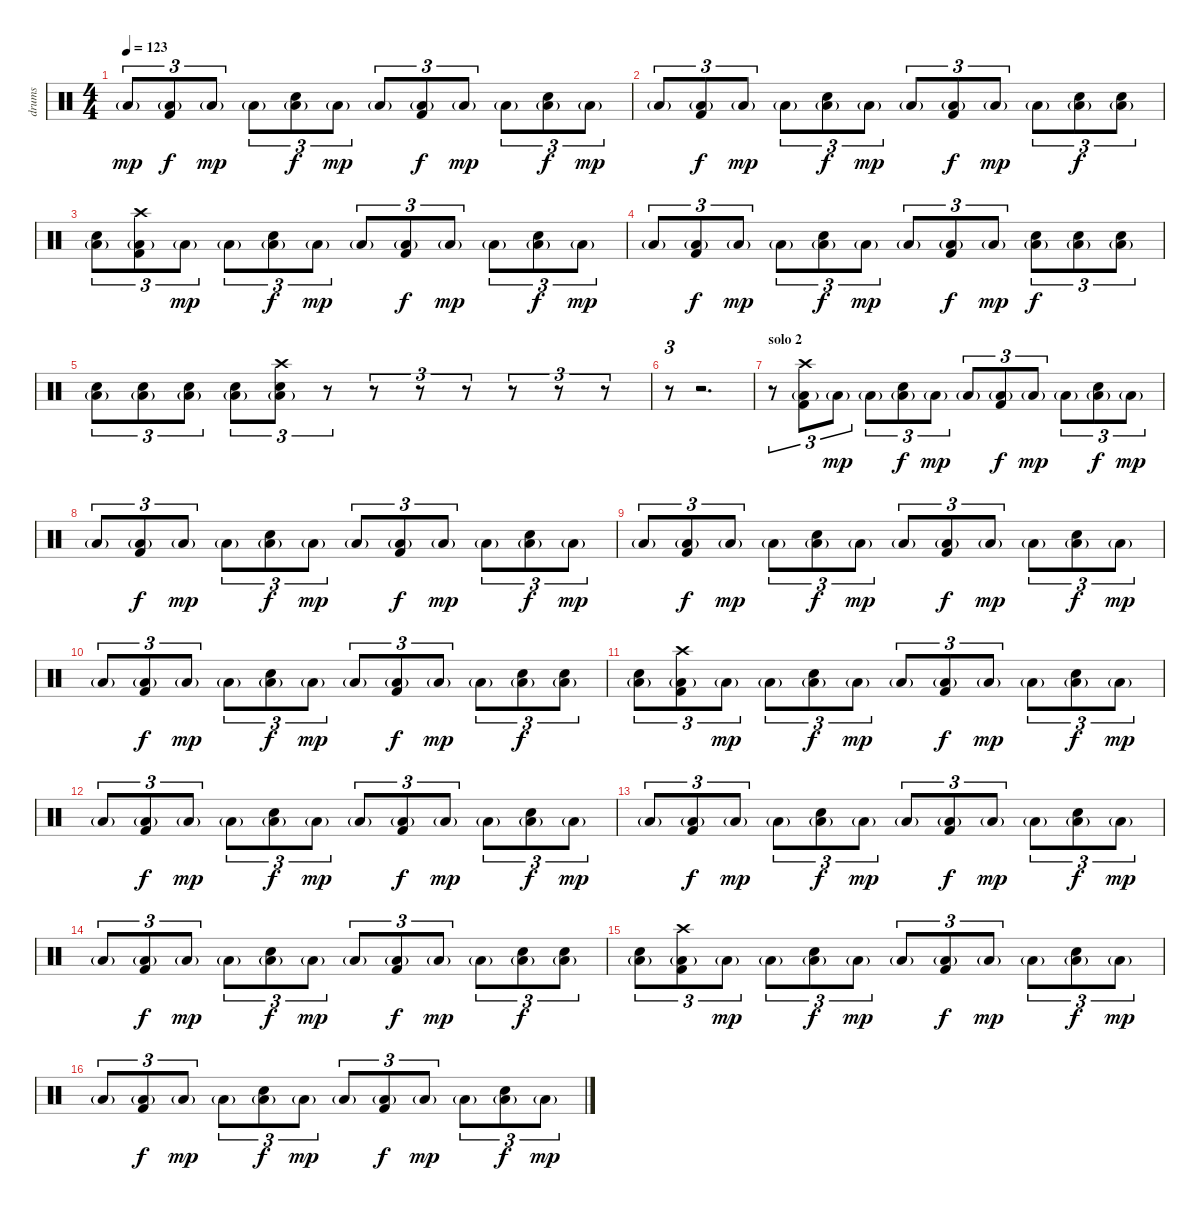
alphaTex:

\track ("drums" "drums") {instrument percussion}
\staff {score}
\articulation defaults
\ts (4 4)
\tempo 123
\clef neutral
\ks c "Low Floor Tom (hit)"{g}.8{tu (3 2) txt "" dy mp}
("Low Floor Tom (hit)"{g} "Kick (hit) 2").8{tu (3 2) txt "" dy f} "Low Floor Tom (hit)"{g}.8{tu (3 2) txt "" dy mp} "Low Floor Tom (hit)"{g}.8{tu (3 2) txt ""} ("Low Floor Tom (hit)"{g} "Electric Snare (hit)").8{tu (3 2) txt "" dy f} "Low Floor Tom (hit)"{g}.8{tu (3 2) txt "" dy mp} "Low Floor Tom (hit)"{g}.8{tu (3 2) txt ""} ("Low Floor Tom (hit)"{g} "Kick (hit) 2").8{tu (3 2) txt "" dy f} "Low Floor Tom (hit)"{g}.8{tu (3 2) txt "" dy mp} "Low Floor Tom (hit)"{g}.8{tu (3 2) txt ""} ("Low Floor Tom (hit)"{g} "Electric Snare (hit)").8{tu (3 2) txt "" dy f} "Low Floor Tom (hit)"{g}.8{tu (3 2) txt "" dy mp} |
"Low Floor Tom (hit)"{g}.8{tu (3 2) txt ""} ("Low Floor Tom (hit)"{g} "Kick (hit) 2").8{tu (3 2) txt "" dy f} "Low Floor Tom (hit)"{g}.8{tu (3 2) txt "" dy mp} "Low Floor Tom (hit)"{g}.8{tu (3 2) txt ""} ("Low Floor Tom (hit)"{g} "Electric Snare (hit)").8{tu (3 2) txt "" dy f} "Low Floor Tom (hit)"{g}.8{tu (3 2) txt "" dy mp} "Low Floor Tom (hit)"{g}.8{tu (3 2) txt ""} ("Low Floor Tom (hit)"{g} "Kick (hit) 2").8{tu (3 2) txt "" dy f} "Low Floor Tom (hit)"{g}.8{tu (3 2) txt "" dy mp} "Low Floor Tom (hit)"{g}.8{tu (3 2) txt ""} ("Low Floor Tom (hit)"{g} "Electric Snare (hit)").8{tu (3 2) txt "" dy f} ("Low Floor Tom (hit)"{g} "Electric Snare (hit)").8{tu (3 2) txt ""} |
("Low Floor Tom (hit)"{g} "Electric Snare (hit)").8{tu (3 2) txt ""} ("Low Floor Tom (hit)"{g} "Kick (hit) 2" "Crash high (hit)").8{tu (3 2) txt ""} "Low Floor Tom (hit)"{g}.8{tu (3 2) txt "" dy mp} "Low Floor Tom (hit)"{g}.8{tu (3 2) txt ""} ("Low Floor Tom (hit)"{g} "Electric Snare (hit)").8{tu (3 2) txt "" dy f} "Low Floor Tom (hit)"{g}.8{tu (3 2) txt "" dy mp} "Low Floor Tom (hit)"{g}.8{tu (3 2) txt ""} ("Low Floor Tom (hit)"{g} "Kick (hit) 2").8{tu (3 2) txt "" dy f} "Low Floor Tom (hit)"{g}.8{tu (3 2) txt "" dy mp} "Low Floor Tom (hit)"{g}.8{tu (3 2) txt ""} ("Low Floor Tom (hit)"{g} "Electric Snare (hit)").8{tu (3 2) txt "" dy f} "Low Floor Tom (hit)"{g}.8{tu (3 2) txt "" dy mp} |
"Low Floor Tom (hit)"{g}.8{tu (3 2) txt ""} ("Low Floor Tom (hit)"{g} "Kick (hit) 2").8{tu (3 2) txt "" dy f} "Low Floor Tom (hit)"{g}.8{tu (3 2) txt "" dy mp} "Low Floor Tom (hit)"{g}.8{tu (3 2) txt ""} ("Low Floor Tom (hit)"{g} "Electric Snare (hit)").8{tu (3 2) txt "" dy f} "Low Floor Tom (hit)"{g}.8{tu (3 2) txt "" dy mp} "Low Floor Tom (hit)"{g}.8{tu (3 2) txt ""} ("Low Floor Tom (hit)"{g} "Kick (hit) 2").8{tu (3 2) txt "" dy f} "Low Floor Tom (hit)"{g}.8{tu (3 2) txt "" dy mp} ("Low Floor Tom (hit)"{g} "Electric Snare (hit)").8{tu (3 2) txt "" dy f} ("Low Floor Tom (hit)"{g} "Electric Snare (hit)").8{tu (3 2) txt ""} ("Low Floor Tom (hit)"{g} "Electric Snare (hit)").8{tu (3 2) txt ""} |
("Low Floor Tom (hit)"{g} "Electric Snare (hit)").8{tu (3 2) txt ""} ("Low Floor Tom (hit)"{g} "Electric Snare (hit)").8{tu (3 2) txt ""} ("Low Floor Tom (hit)"{g} "Electric Snare (hit)").8{tu (3 2) txt ""} ("Low Floor Tom (hit)"{g} "Electric Snare (hit)").8{tu (3 2) txt ""} ("Low Floor Tom (hit)"{g} "Electric Snare (hit)" "Crash high (hit)").8{tu (3 2) txt ""} r.8{tu (3 2) txt ""} r.8{tu (3 2) txt ""} r.8{tu (3 2) txt ""} r.8{tu (3 2) txt ""} r.8{tu (3 2) txt ""} r.8{tu (3 2) txt ""} r.8{tu (3 2) txt ""} |
r.8{tu (3 2) txt ""} r.2{d txt ""} |
\section ("" "solo 2")
r.8{tu (3 2) txt ""} ("Low Floor Tom (hit)"{g} "Kick (hit) 2" "Crash high (hit)").8{tu (3 2) txt ""} "Low Floor Tom (hit)"{g}.8{tu (3 2) txt "" dy mp} "Low Floor Tom (hit)"{g}.8{tu (3 2) txt ""} ("Low Floor Tom (hit)"{g} "Electric Snare (hit)").8{tu (3 2) txt "" dy f} "Low Floor Tom (hit)"{g}.8{tu (3 2) txt "" dy mp} "Low Floor Tom (hit)"{g}.8{tu (3 2) txt ""} ("Low Floor Tom (hit)"{g} "Kick (hit) 2").8{tu (3 2) txt "" dy f} "Low Floor Tom (hit)"{g}.8{tu (3 2) txt "" dy mp} "Low Floor Tom (hit)"{g}.8{tu (3 2) txt ""} ("Low Floor Tom (hit)"{g} "Electric Snare (hit)").8{tu (3 2) txt "" dy f} "Low Floor Tom (hit)"{g}.8{tu (3 2) txt "" dy mp} |
"Low Floor Tom (hit)"{g}.8{tu (3 2) txt ""} ("Low Floor Tom (hit)"{g} "Kick (hit) 2").8{tu (3 2) txt "" dy f} "Low Floor Tom (hit)"{g}.8{tu (3 2) txt "" dy mp} "Low Floor Tom (hit)"{g}.8{tu (3 2) txt ""} ("Low Floor Tom (hit)"{g} "Electric Snare (hit)").8{tu (3 2) txt "" dy f} "Low Floor Tom (hit)"{g}.8{tu (3 2) txt "" dy mp} "Low Floor Tom (hit)"{g}.8{tu (3 2) txt ""} ("Low Floor Tom (hit)"{g} "Kick (hit) 2").8{tu (3 2) txt "" dy f} "Low Floor Tom (hit)"{g}.8{tu (3 2) txt "" dy mp} "Low Floor Tom (hit)"{g}.8{tu (3 2) txt ""} ("Low Floor Tom (hit)"{g} "Electric Snare (hit)").8{tu (3 2) txt "" dy f} "Low Floor Tom (hit)"{g}.8{tu (3 2) txt "" dy mp} |
"Low Floor Tom (hit)"{g}.8{tu (3 2) txt ""} ("Low Floor Tom (hit)"{g} "Kick (hit) 2").8{tu (3 2) txt "" dy f} "Low Floor Tom (hit)"{g}.8{tu (3 2) txt "" dy mp} "Low Floor Tom (hit)"{g}.8{tu (3 2) txt ""} ("Low Floor Tom (hit)"{g} "Electric Snare (hit)").8{tu (3 2) txt "" dy f} "Low Floor Tom (hit)"{g}.8{tu (3 2) txt "" dy mp} "Low Floor Tom (hit)"{g}.8{tu (3 2) txt ""} ("Low Floor Tom (hit)"{g} "Kick (hit) 2").8{tu (3 2) txt "" dy f} "Low Floor Tom (hit)"{g}.8{tu (3 2) txt "" dy mp} "Low Floor Tom (hit)"{g}.8{tu (3 2) txt ""} ("Low Floor Tom (hit)"{g} "Electric Snare (hit)").8{tu (3 2) txt "" dy f} "Low Floor Tom (hit)"{g}.8{tu (3 2) txt "" dy mp} |
"Low Floor Tom (hit)"{g}.8{tu (3 2) txt ""} ("Low Floor Tom (hit)"{g} "Kick (hit) 2").8{tu (3 2) txt "" dy f} "Low Floor Tom (hit)"{g}.8{tu (3 2) txt "" dy mp} "Low Floor Tom (hit)"{g}.8{tu (3 2) txt ""} ("Low Floor Tom (hit)"{g} "Electric Snare (hit)").8{tu (3 2) txt "" dy f} "Low Floor Tom (hit)"{g}.8{tu (3 2) txt "" dy mp} "Low Floor Tom (hit)"{g}.8{tu (3 2) txt ""} ("Low Floor Tom (hit)"{g} "Kick (hit) 2").8{tu (3 2) txt "" dy f} "Low Floor Tom (hit)"{g}.8{tu (3 2) txt "" dy mp} "Low Floor Tom (hit)"{g}.8{tu (3 2) txt ""} ("Low Floor Tom (hit)"{g} "Electric Snare (hit)").8{tu (3 2) txt "" dy f} ("Low Floor Tom (hit)"{g} "Electric Snare (hit)").8{tu (3 2) txt ""} |
("Low Floor Tom (hit)"{g} "Electric Snare (hit)").8{tu (3 2) txt ""} ("Low Floor Tom (hit)"{g} "Kick (hit) 2" "Crash high (hit)").8{tu (3 2) txt ""} "Low Floor Tom (hit)"{g}.8{tu (3 2) txt "" dy mp} "Low Floor Tom (hit)"{g}.8{tu (3 2) txt ""} ("Low Floor Tom (hit)"{g} "Electric Snare (hit)").8{tu (3 2) txt "" dy f} "Low Floor Tom (hit)"{g}.8{tu (3 2) txt "" dy mp} "Low Floor Tom (hit)"{g}.8{tu (3 2) txt ""} ("Low Floor Tom (hit)"{g} "Kick (hit) 2").8{tu (3 2) txt "" dy f} "Low Floor Tom (hit)"{g}.8{tu (3 2) txt "" dy mp} "Low Floor Tom (hit)"{g}.8{tu (3 2) txt ""} ("Low Floor Tom (hit)"{g} "Electric Snare (hit)").8{tu (3 2) txt "" dy f} "Low Floor Tom (hit)"{g}.8{tu (3 2) txt "" dy mp} |
"Low Floor Tom (hit)"{g}.8{tu (3 2) txt ""} ("Low Floor Tom (hit)"{g} "Kick (hit) 2").8{tu (3 2) txt "" dy f} "Low Floor Tom (hit)"{g}.8{tu (3 2) txt "" dy mp} "Low Floor Tom (hit)"{g}.8{tu (3 2) txt ""} ("Low Floor Tom (hit)"{g} "Electric Snare (hit)").8{tu (3 2) txt "" dy f} "Low Floor Tom (hit)"{g}.8{tu (3 2) txt "" dy mp} "Low Floor Tom (hit)"{g}.8{tu (3 2) txt ""} ("Low Floor Tom (hit)"{g} "Kick (hit) 2").8{tu (3 2) txt "" dy f} "Low Floor Tom (hit)"{g}.8{tu (3 2) txt "" dy mp} "Low Floor Tom (hit)"{g}.8{tu (3 2) txt ""} ("Low Floor Tom (hit)"{g} "Electric Snare (hit)").8{tu (3 2) txt "" dy f} "Low Floor Tom (hit)"{g}.8{tu (3 2) txt "" dy mp} |
"Low Floor Tom (hit)"{g}.8{tu (3 2) txt ""} ("Low Floor Tom (hit)"{g} "Kick (hit) 2").8{tu (3 2) txt "" dy f} "Low Floor Tom (hit)"{g}.8{tu (3 2) txt "" dy mp} "Low Floor Tom (hit)"{g}.8{tu (3 2) txt ""} ("Low Floor Tom (hit)"{g} "Electric Snare (hit)").8{tu (3 2) txt "" dy f} "Low Floor Tom (hit)"{g}.8{tu (3 2) txt "" dy mp} "Low Floor Tom (hit)"{g}.8{tu (3 2) txt ""} ("Low Floor Tom (hit)"{g} "Kick (hit) 2").8{tu (3 2) txt "" dy f} "Low Floor Tom (hit)"{g}.8{tu (3 2) txt "" dy mp} "Low Floor Tom (hit)"{g}.8{tu (3 2) txt ""} ("Low Floor Tom (hit)"{g} "Electric Snare (hit)").8{tu (3 2) txt "" dy f} "Low Floor Tom (hit)"{g}.8{tu (3 2) txt "" dy mp} |
"Low Floor Tom (hit)"{g}.8{tu (3 2) txt ""} ("Low Floor Tom (hit)"{g} "Kick (hit) 2").8{tu (3 2) txt "" dy f} "Low Floor Tom (hit)"{g}.8{tu (3 2) txt "" dy mp} "Low Floor Tom (hit)"{g}.8{tu (3 2) txt ""} ("Low Floor Tom (hit)"{g} "Electric Snare (hit)").8{tu (3 2) txt "" dy f} "Low Floor Tom (hit)"{g}.8{tu (3 2) txt "" dy mp} "Low Floor Tom (hit)"{g}.8{tu (3 2) txt ""} ("Low Floor Tom (hit)"{g} "Kick (hit) 2").8{tu (3 2) txt "" dy f} "Low Floor Tom (hit)"{g}.8{tu (3 2) txt "" dy mp} "Low Floor Tom (hit)"{g}.8{tu (3 2) txt ""} ("Low Floor Tom (hit)"{g} "Electric Snare (hit)").8{tu (3 2) txt "" dy f} ("Low Floor Tom (hit)"{g} "Electric Snare (hit)").8{tu (3 2) txt ""} |
("Low Floor Tom (hit)"{g} "Electric Snare (hit)").8{tu (3 2) txt ""} ("Low Floor Tom (hit)"{g} "Kick (hit) 2" "Crash high (hit)").8{tu (3 2) txt ""} "Low Floor Tom (hit)"{g}.8{tu (3 2) txt "" dy mp} "Low Floor Tom (hit)"{g}.8{tu (3 2) txt ""} ("Low Floor Tom (hit)"{g} "Electric Snare (hit)").8{tu (3 2) txt "" dy f} "Low Floor Tom (hit)"{g}.8{tu (3 2) txt "" dy mp} "Low Floor Tom (hit)"{g}.8{tu (3 2) txt ""} ("Low Floor Tom (hit)"{g} "Kick (hit) 2").8{tu (3 2) txt "" dy f} "Low Floor Tom (hit)"{g}.8{tu (3 2) txt "" dy mp} "Low Floor Tom (hit)"{g}.8{tu (3 2) txt ""} ("Low Floor Tom (hit)"{g} "Electric Snare (hit)").8{tu (3 2) txt "" dy f} "Low Floor Tom (hit)"{g}.8{tu (3 2) txt "" dy mp} |
"Low Floor Tom (hit)"{g}.8{tu (3 2) txt ""} ("Low Floor Tom (hit)"{g} "Kick (hit) 2").8{tu (3 2) txt "" dy f} "Low Floor Tom (hit)"{g}.8{tu (3 2) txt "" dy mp} "Low Floor Tom (hit)"{g}.8{tu (3 2) txt ""} ("Low Floor Tom (hit)"{g} "Electric Snare (hit)").8{tu (3 2) txt "" dy f} "Low Floor Tom (hit)"{g}.8{tu (3 2) txt "" dy mp} "Low Floor Tom (hit)"{g}.8{tu (3 2) txt ""} ("Low Floor Tom (hit)"{g} "Kick (hit) 2").8{tu (3 2) txt "" dy f} "Low Floor Tom (hit)"{g}.8{tu (3 2) txt "" dy mp} "Low Floor Tom (hit)"{g}.8{tu (3 2) txt ""} ("Low Floor Tom (hit)"{g} "Electric Snare (hit)").8{tu (3 2) txt "" dy f} "Low Floor Tom (hit)"{g}.8{tu (3 2) txt "" dy mp}
